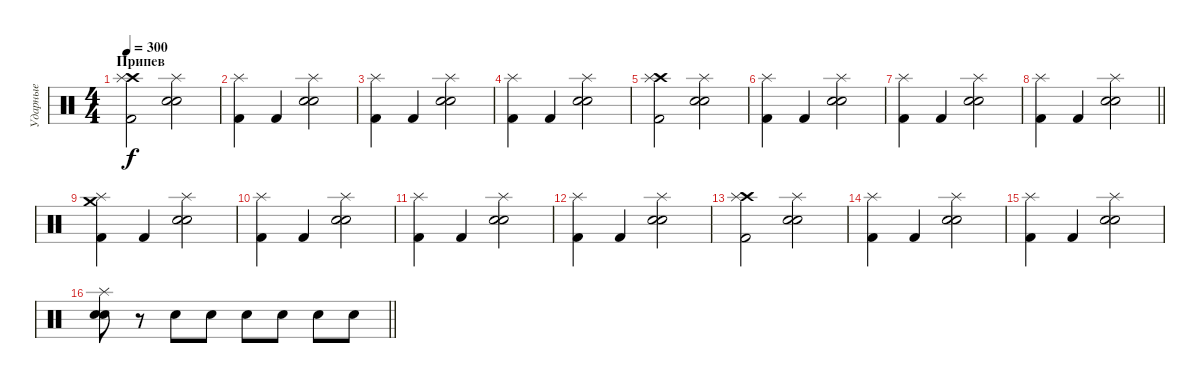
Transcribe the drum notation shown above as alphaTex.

\track ("Ударные" "Ударные") {instrument percussion}
\staff {score}
\articulation defaults
\ts (4 4)
\section ("" "Припев")
\tempo 300
\clef neutral
\ks c
("Crash high (hit)" "Splash (hit)" "Kick (hit) 2").2{dy f} ("Splash (hit)" "Electric Snare (hit)" "Snare (hit) 2").2 |
("Splash (hit)" "Kick (hit) 2").4 "Kick (hit) 2".4 ("Splash (hit)" "Electric Snare (hit)" "Snare (hit) 2").2 |
("Splash (hit)" "Kick (hit) 2").4 "Kick (hit) 2".4 ("Splash (hit)" "Electric Snare (hit)" "Snare (hit) 2").2 |
("Splash (hit)" "Kick (hit) 2").4 "Kick (hit) 2".4 ("Splash (hit)" "Electric Snare (hit)" "Snare (hit) 2").2 |
("Crash high (hit)" "Splash (hit)" "Kick (hit) 2").2 ("Splash (hit)" "Electric Snare (hit)" "Snare (hit) 2").2 |
("Splash (hit)" "Kick (hit) 2").4 "Kick (hit) 2".4 ("Splash (hit)" "Electric Snare (hit)" "Snare (hit) 2").2 |
("Splash (hit)" "Kick (hit) 2").4 "Kick (hit) 2".4 ("Splash (hit)" "Electric Snare (hit)" "Snare (hit) 2").2 |
\barLineRight lightlight
("Splash (hit)" "Kick (hit) 2").4 "Kick (hit) 2".4 ("Splash (hit)" "Electric Snare (hit)" "Snare (hit) 2").2 |
("Crash medium (hit)" "Splash (hit)" "Kick (hit) 2").4 "Kick (hit) 2".4 ("Splash (hit)" "Electric Snare (hit)" "Snare (hit) 2").2 |
("Splash (hit)" "Kick (hit) 2").4 "Kick (hit) 2".4 ("Splash (hit)" "Electric Snare (hit)" "Snare (hit) 2").2 |
("Splash (hit)" "Kick (hit) 2").4 "Kick (hit) 2".4 ("Splash (hit)" "Electric Snare (hit)" "Snare (hit) 2").2 |
("Splash (hit)" "Kick (hit) 2").4 "Kick (hit) 2".4 ("Splash (hit)" "Electric Snare (hit)" "Snare (hit) 2").2 |
("Crash high (hit)" "Splash (hit)" "Kick (hit) 2").2 ("Splash (hit)" "Electric Snare (hit)" "Snare (hit) 2").2 |
("Splash (hit)" "Kick (hit) 2").4 "Kick (hit) 2".4 ("Splash (hit)" "Electric Snare (hit)" "Snare (hit) 2").2 |
("Splash (hit)" "Kick (hit) 2").4 "Kick (hit) 2".4 ("Splash (hit)" "Electric Snare (hit)" "Snare (hit) 2").2 |
\barLineRight lightlight
("Splash (hit)" "Electric Snare (hit)" "Snare (hit) 2").8 r.8 "Electric Snare (hit)".8 "Electric Snare (hit)".8 "Electric Snare (hit)".8 "Electric Snare (hit)".8 "Electric Snare (hit)".8 "Electric Snare (hit)".8
